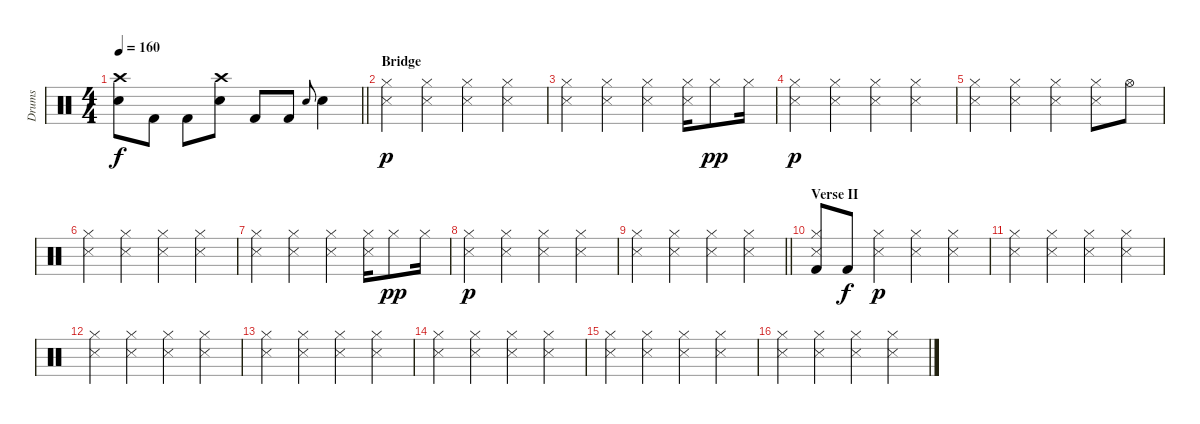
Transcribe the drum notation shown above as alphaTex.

\track ("Drums" "Drums") {instrument percussion}
\staff {score}
\articulation defaults
\ts (4 4)
\tempo 160
\clef neutral
\barLineRight lightlight
\ks c
("Electric Snare (hit)" "Crash high (hit)").8{dy f} "Kick (hit) 2".8 "Kick (hit) 2".8 ("Electric Snare (hit)" "Crash high (hit)").8 "Kick (hit) 2".8 "Kick (hit) 2".8 "Electric Snare (hit)".8{gr onbeat} "Electric Snare (hit)".4 |
\section ("" "Bridge")
("Hi-Hat (closed)" "Snare (side stick) 3").4{dy p} ("Hi-Hat (closed)" "Snare (side stick) 3").4 ("Hi-Hat (closed)" "Snare (side stick) 3").4 ("Hi-Hat (closed)" "Snare (side stick) 3").4 |
("Hi-Hat (closed)" "Snare (side stick) 3").4 ("Hi-Hat (closed)" "Snare (side stick) 3").4 ("Hi-Hat (closed)" "Snare (side stick) 3").4 ("Hi-Hat (closed)" "Snare (side stick) 3").16 "Hi-Hat (closed)".8{dy pp} "Hi-Hat (closed)".16 |
("Hi-Hat (closed)" "Snare (side stick) 3").4{dy p} ("Hi-Hat (closed)" "Snare (side stick) 3").4 ("Hi-Hat (closed)" "Snare (side stick) 3").4 ("Hi-Hat (closed)" "Snare (side stick) 3").4 |
("Hi-Hat (closed)" "Snare (side stick) 3").4 ("Hi-Hat (closed)" "Snare (side stick) 3").4 ("Hi-Hat (closed)" "Snare (side stick) 3").4 ("Hi-Hat (closed)" "Snare (side stick) 3").8 "Hi-Hat (open)".8 |
("Hi-Hat (closed)" "Snare (side stick) 3").4 ("Hi-Hat (closed)" "Snare (side stick) 3").4 ("Hi-Hat (closed)" "Snare (side stick) 3").4 ("Hi-Hat (closed)" "Snare (side stick) 3").4 |
("Hi-Hat (closed)" "Snare (side stick) 3").4 ("Hi-Hat (closed)" "Snare (side stick) 3").4 ("Hi-Hat (closed)" "Snare (side stick) 3").4 ("Hi-Hat (closed)" "Snare (side stick) 3").16 "Hi-Hat (closed)".8{dy pp} "Hi-Hat (closed)".16 |
("Hi-Hat (closed)" "Snare (side stick) 3").4{dy p} ("Hi-Hat (closed)" "Snare (side stick) 3").4 ("Hi-Hat (closed)" "Snare (side stick) 3").4 ("Hi-Hat (closed)" "Snare (side stick) 3").4 |
\barLineRight lightlight
("Hi-Hat (closed)" "Snare (side stick) 3").4 ("Hi-Hat (closed)" "Snare (side stick) 3").4 ("Hi-Hat (closed)" "Snare (side stick) 3").4 ("Hi-Hat (closed)" "Snare (side stick) 3").4 |
\section ("" "Verse II")
("Hi-Hat (closed)" "Snare (side stick) 3" "Kick (hit) 2").8 "Kick (hit) 2".8{dy f} ("Hi-Hat (closed)" "Snare (side stick) 3").4{dy p} ("Hi-Hat (closed)" "Snare (side stick) 3").4 ("Hi-Hat (closed)" "Snare (side stick) 3").4 |
("Hi-Hat (closed)" "Snare (side stick) 3").4 ("Hi-Hat (closed)" "Snare (side stick) 3").4 ("Hi-Hat (closed)" "Snare (side stick) 3").4 ("Hi-Hat (closed)" "Snare (side stick) 3").4 |
("Hi-Hat (closed)" "Snare (side stick) 3").4 ("Hi-Hat (closed)" "Snare (side stick) 3").4 ("Hi-Hat (closed)" "Snare (side stick) 3").4 ("Hi-Hat (closed)" "Snare (side stick) 3").4 |
("Hi-Hat (closed)" "Snare (side stick) 3").4 ("Hi-Hat (closed)" "Snare (side stick) 3").4 ("Hi-Hat (closed)" "Snare (side stick) 3").4 ("Hi-Hat (closed)" "Snare (side stick) 3").4 |
("Hi-Hat (closed)" "Snare (side stick) 3").4 ("Hi-Hat (closed)" "Snare (side stick) 3").4 ("Hi-Hat (closed)" "Snare (side stick) 3").4 ("Hi-Hat (closed)" "Snare (side stick) 3").4 |
("Hi-Hat (closed)" "Snare (side stick) 3").4 ("Hi-Hat (closed)" "Snare (side stick) 3").4 ("Hi-Hat (closed)" "Snare (side stick) 3").4 ("Hi-Hat (closed)" "Snare (side stick) 3").4 |
("Hi-Hat (closed)" "Snare (side stick) 3").4 ("Hi-Hat (closed)" "Snare (side stick) 3").4 ("Hi-Hat (closed)" "Snare (side stick) 3").4 ("Hi-Hat (closed)" "Snare (side stick) 3").4
